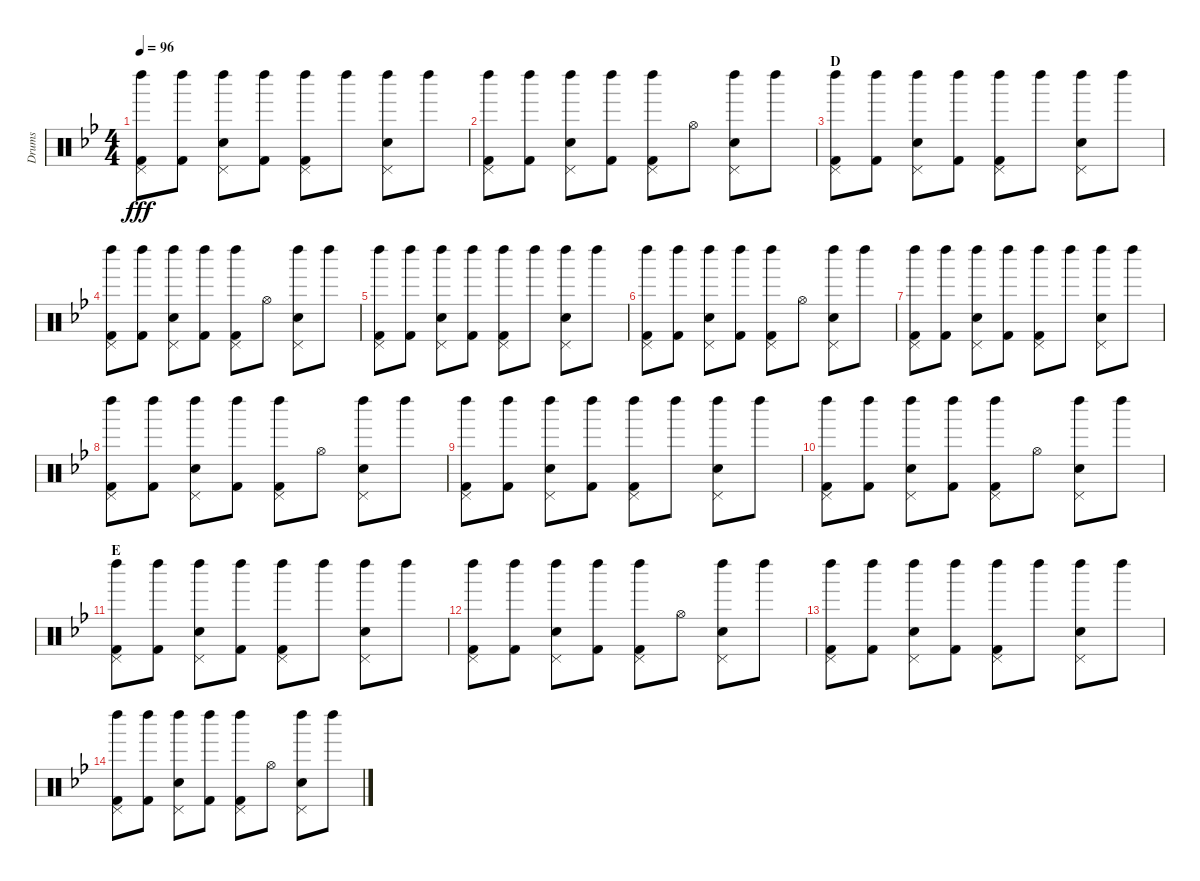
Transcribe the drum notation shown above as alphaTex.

\track ("Drums" "Drums") {instrument percussion}
\staff {score}
\articulation defaults
\ts (4 4)
\tempo 96
\clef neutral
\ks bb
("Left Maraca (hit)" "Pedal Hi-Hat (hit)" "Kick (hit) 2").8{dy fff} ("Left Maraca (hit)" "Kick (hit) 2").8 ("Left Maraca (hit)" "Pedal Hi-Hat (hit)" "Snare (hit) 2").8 ("Left Maraca (hit)" "Kick (hit) 2").8 ("Left Maraca (hit)" "Pedal Hi-Hat (hit)" "Kick (hit) 2").8 "Left Maraca (hit)".8 ("Left Maraca (hit)" "Pedal Hi-Hat (hit)" "Snare (hit) 2").8 "Left Maraca (hit)".8 |
("Left Maraca (hit)" "Pedal Hi-Hat (hit)" "Kick (hit) 2").8 ("Left Maraca (hit)" "Kick (hit) 2").8 ("Left Maraca (hit)" "Pedal Hi-Hat (hit)" "Snare (hit) 2").8 ("Left Maraca (hit)" "Kick (hit) 2").8 ("Left Maraca (hit)" "Pedal Hi-Hat (hit)" "Kick (hit) 2").8 "Hi-Hat (open)".8 ("Left Maraca (hit)" "Pedal Hi-Hat (hit)" "Snare (hit) 2").8 "Left Maraca (hit)".8 |
\section ("" "D")
("Left Maraca (hit)" "Pedal Hi-Hat (hit)" "Kick (hit) 2").8 ("Left Maraca (hit)" "Kick (hit) 2").8 ("Left Maraca (hit)" "Pedal Hi-Hat (hit)" "Snare (hit) 2").8 ("Left Maraca (hit)" "Kick (hit) 2").8 ("Left Maraca (hit)" "Pedal Hi-Hat (hit)" "Kick (hit) 2").8 "Left Maraca (hit)".8 ("Left Maraca (hit)" "Pedal Hi-Hat (hit)" "Snare (hit) 2").8 "Left Maraca (hit)".8 |
("Left Maraca (hit)" "Pedal Hi-Hat (hit)" "Kick (hit) 2").8 ("Left Maraca (hit)" "Kick (hit) 2").8 ("Left Maraca (hit)" "Pedal Hi-Hat (hit)" "Snare (hit) 2").8 ("Left Maraca (hit)" "Kick (hit) 2").8 ("Left Maraca (hit)" "Pedal Hi-Hat (hit)" "Kick (hit) 2").8 "Hi-Hat (open)".8 ("Left Maraca (hit)" "Pedal Hi-Hat (hit)" "Snare (hit) 2").8 "Left Maraca (hit)".8 |
("Left Maraca (hit)" "Pedal Hi-Hat (hit)" "Kick (hit) 2").8 ("Left Maraca (hit)" "Kick (hit) 2").8 ("Left Maraca (hit)" "Pedal Hi-Hat (hit)" "Snare (hit) 2").8 ("Left Maraca (hit)" "Kick (hit) 2").8 ("Left Maraca (hit)" "Pedal Hi-Hat (hit)" "Kick (hit) 2").8 "Left Maraca (hit)".8 ("Left Maraca (hit)" "Pedal Hi-Hat (hit)" "Snare (hit) 2").8 "Left Maraca (hit)".8 |
("Left Maraca (hit)" "Pedal Hi-Hat (hit)" "Kick (hit) 2").8 ("Left Maraca (hit)" "Kick (hit) 2").8 ("Left Maraca (hit)" "Pedal Hi-Hat (hit)" "Snare (hit) 2").8 ("Left Maraca (hit)" "Kick (hit) 2").8 ("Left Maraca (hit)" "Pedal Hi-Hat (hit)" "Kick (hit) 2").8 "Hi-Hat (open)".8 ("Left Maraca (hit)" "Pedal Hi-Hat (hit)" "Snare (hit) 2").8 "Left Maraca (hit)".8 |
("Left Maraca (hit)" "Pedal Hi-Hat (hit)" "Kick (hit) 2").8 ("Left Maraca (hit)" "Kick (hit) 2").8 ("Left Maraca (hit)" "Pedal Hi-Hat (hit)" "Snare (hit) 2").8 ("Left Maraca (hit)" "Kick (hit) 2").8 ("Left Maraca (hit)" "Pedal Hi-Hat (hit)" "Kick (hit) 2").8 "Left Maraca (hit)".8 ("Left Maraca (hit)" "Pedal Hi-Hat (hit)" "Snare (hit) 2").8 "Left Maraca (hit)".8 |
("Left Maraca (hit)" "Pedal Hi-Hat (hit)" "Kick (hit) 2").8 ("Left Maraca (hit)" "Kick (hit) 2").8 ("Left Maraca (hit)" "Pedal Hi-Hat (hit)" "Snare (hit) 2").8 ("Left Maraca (hit)" "Kick (hit) 2").8 ("Left Maraca (hit)" "Pedal Hi-Hat (hit)" "Kick (hit) 2").8 "Hi-Hat (open)".8 ("Left Maraca (hit)" "Pedal Hi-Hat (hit)" "Snare (hit) 2").8 "Left Maraca (hit)".8 |
("Left Maraca (hit)" "Pedal Hi-Hat (hit)" "Kick (hit) 2").8 ("Left Maraca (hit)" "Kick (hit) 2").8 ("Left Maraca (hit)" "Pedal Hi-Hat (hit)" "Snare (hit) 2").8 ("Left Maraca (hit)" "Kick (hit) 2").8 ("Left Maraca (hit)" "Pedal Hi-Hat (hit)" "Kick (hit) 2").8 "Left Maraca (hit)".8 ("Left Maraca (hit)" "Pedal Hi-Hat (hit)" "Snare (hit) 2").8 "Left Maraca (hit)".8 |
("Left Maraca (hit)" "Pedal Hi-Hat (hit)" "Kick (hit) 2").8 ("Left Maraca (hit)" "Kick (hit) 2").8 ("Left Maraca (hit)" "Pedal Hi-Hat (hit)" "Snare (hit) 2").8 ("Left Maraca (hit)" "Kick (hit) 2").8 ("Left Maraca (hit)" "Pedal Hi-Hat (hit)" "Kick (hit) 2").8 "Hi-Hat (open)".8 ("Left Maraca (hit)" "Pedal Hi-Hat (hit)" "Snare (hit) 2").8 "Left Maraca (hit)".8 |
\section ("" "E")
("Left Maraca (hit)" "Pedal Hi-Hat (hit)" "Kick (hit) 2").8 ("Left Maraca (hit)" "Kick (hit) 2").8 ("Left Maraca (hit)" "Pedal Hi-Hat (hit)" "Snare (hit) 2").8 ("Left Maraca (hit)" "Kick (hit) 2").8 ("Left Maraca (hit)" "Pedal Hi-Hat (hit)" "Kick (hit) 2").8 "Left Maraca (hit)".8 ("Left Maraca (hit)" "Pedal Hi-Hat (hit)" "Snare (hit) 2").8 "Left Maraca (hit)".8 |
("Left Maraca (hit)" "Pedal Hi-Hat (hit)" "Kick (hit) 2").8 ("Left Maraca (hit)" "Kick (hit) 2").8 ("Left Maraca (hit)" "Pedal Hi-Hat (hit)" "Snare (hit) 2").8 ("Left Maraca (hit)" "Kick (hit) 2").8 ("Left Maraca (hit)" "Pedal Hi-Hat (hit)" "Kick (hit) 2").8 "Hi-Hat (open)".8 ("Left Maraca (hit)" "Pedal Hi-Hat (hit)" "Snare (hit) 2").8 "Left Maraca (hit)".8 |
("Left Maraca (hit)" "Pedal Hi-Hat (hit)" "Kick (hit) 2").8 ("Left Maraca (hit)" "Kick (hit) 2").8 ("Left Maraca (hit)" "Pedal Hi-Hat (hit)" "Snare (hit) 2").8 ("Left Maraca (hit)" "Kick (hit) 2").8 ("Left Maraca (hit)" "Pedal Hi-Hat (hit)" "Kick (hit) 2").8 "Left Maraca (hit)".8 ("Left Maraca (hit)" "Pedal Hi-Hat (hit)" "Snare (hit) 2").8 "Left Maraca (hit)".8 |
("Left Maraca (hit)" "Pedal Hi-Hat (hit)" "Kick (hit) 2").8 ("Left Maraca (hit)" "Kick (hit) 2").8 ("Left Maraca (hit)" "Pedal Hi-Hat (hit)" "Snare (hit) 2").8 ("Left Maraca (hit)" "Kick (hit) 2").8 ("Left Maraca (hit)" "Pedal Hi-Hat (hit)" "Kick (hit) 2").8 "Hi-Hat (open)".8 ("Left Maraca (hit)" "Pedal Hi-Hat (hit)" "Snare (hit) 2").8 "Left Maraca (hit)".8
